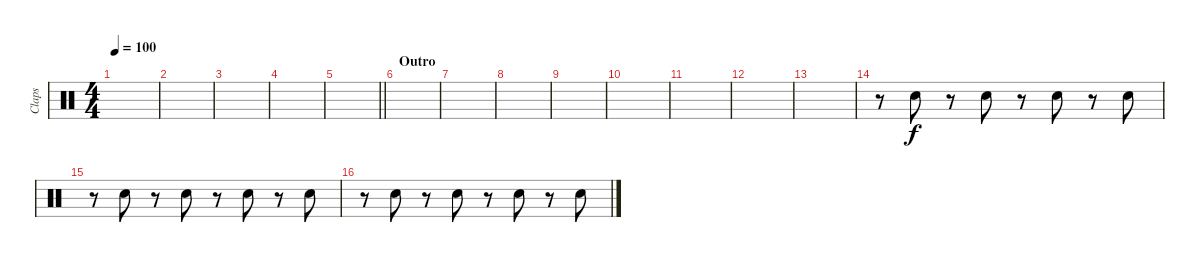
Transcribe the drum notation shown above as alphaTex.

\track ("Claps" "Claps") {instrument percussion}
\staff {score}
\articulation defaults
\ts (4 4)
\tempo 100
\clef neutral
\ks c
|
|
|
|
\barLineRight lightlight
|
\section ("" "Outro")
|
|
|
|
|
|
|
|
r.8 "Hand Clap (hit)".8 r.8 "Hand Clap (hit)".8 r.8 "Hand Clap (hit)".8 r.8 "Hand Clap (hit)".8 |
r.8 "Hand Clap (hit)".8 r.8 "Hand Clap (hit)".8 r.8 "Hand Clap (hit)".8 r.8 "Hand Clap (hit)".8 |
r.8 "Hand Clap (hit)".8 r.8 "Hand Clap (hit)".8 r.8 "Hand Clap (hit)".8 r.8 "Hand Clap (hit)".8
